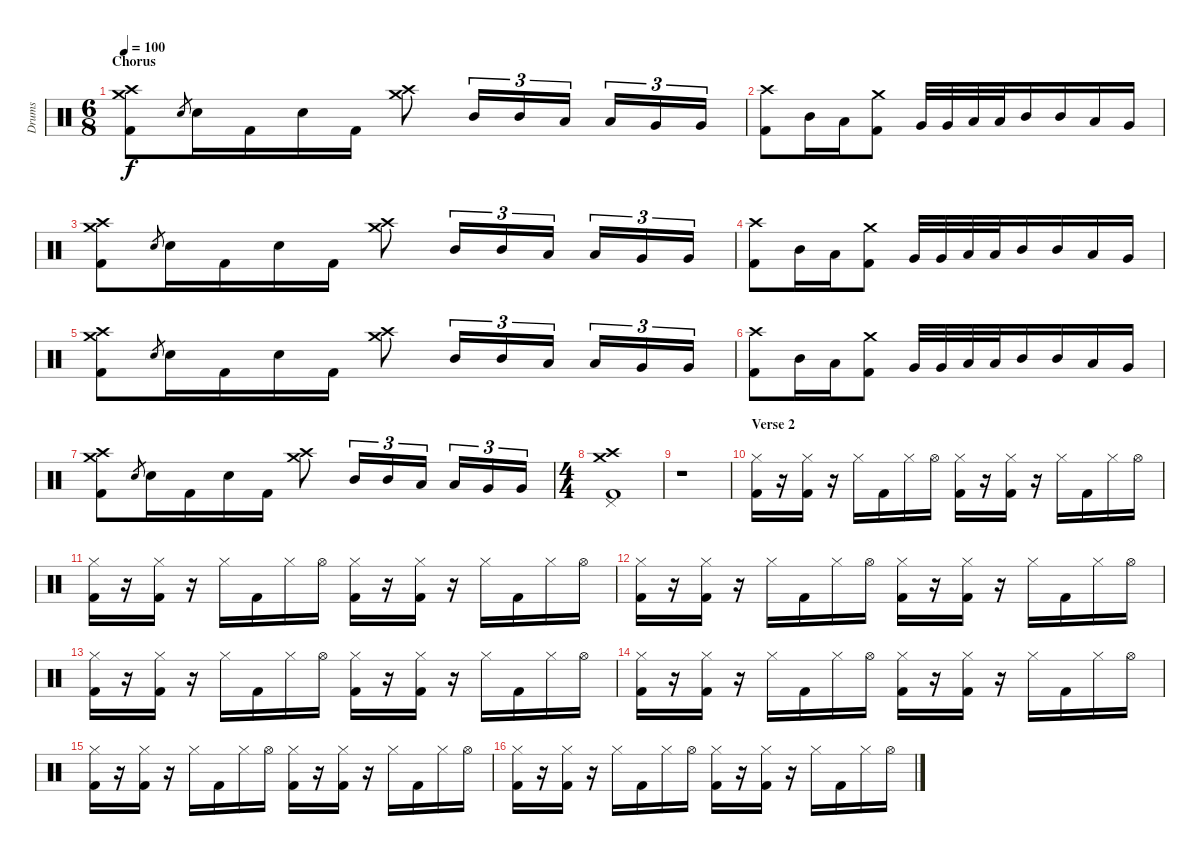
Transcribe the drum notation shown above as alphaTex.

\track ("Drums" "Drums") {instrument percussion}
\staff {score}
\articulation defaults
\ts (6 8)
\section ("" "Chorus")
\tempo 100
\clef neutral
\ks c
("Crash high (hit)" "Crash medium (hit)" "Kick (hit) 2").8{dy f} "Electric Snare (hit)".8{gr} "Electric Snare (hit)".16 "Kick (hit) 2".16 "Electric Snare (hit)".16 "Kick (hit) 2".16 ("Crash high (hit)" "Crash medium (hit)").8 "Mid Tom (hit)".16{tu (3 2)} "Mid Tom (hit)".16{tu (3 2)} "Low Tom (hit)".16{tu (3 2)} "Low Tom (hit)".16{tu (3 2)} "Very Low Tom (hit)".16{tu (3 2)} "Very Low Tom (hit)".16{tu (3 2)} |
("Crash high (hit)" "Kick (hit) 2").8 "Mid Tom (hit)".16 "Low Tom (hit)".16 ("Crash medium (hit)" "Kick (hit) 2").8 "Very Low Tom (hit)".32 "Very Low Tom (hit)".32 "Low Tom (hit)".32 "Low Tom (hit)".32 "Mid Tom (hit)".16 "Mid Tom (hit)".16 "Low Tom (hit)".16 "Very Low Tom (hit)".16 |
("Crash high (hit)" "Crash medium (hit)" "Kick (hit) 2").8 "Electric Snare (hit)".8{gr} "Electric Snare (hit)".16 "Kick (hit) 2".16 "Electric Snare (hit)".16 "Kick (hit) 2".16 ("Crash high (hit)" "Crash medium (hit)").8 "Mid Tom (hit)".16{tu (3 2)} "Mid Tom (hit)".16{tu (3 2)} "Low Tom (hit)".16{tu (3 2)} "Low Tom (hit)".16{tu (3 2)} "Very Low Tom (hit)".16{tu (3 2)} "Very Low Tom (hit)".16{tu (3 2)} |
("Crash high (hit)" "Kick (hit) 2").8 "Mid Tom (hit)".16 "Low Tom (hit)".16 ("Crash medium (hit)" "Kick (hit) 2").8 "Very Low Tom (hit)".32 "Very Low Tom (hit)".32 "Low Tom (hit)".32 "Low Tom (hit)".32 "Mid Tom (hit)".16 "Mid Tom (hit)".16 "Low Tom (hit)".16 "Very Low Tom (hit)".16 |
("Crash high (hit)" "Crash medium (hit)" "Kick (hit) 2").8 "Electric Snare (hit)".8{gr} "Electric Snare (hit)".16 "Kick (hit) 2".16 "Electric Snare (hit)".16 "Kick (hit) 2".16 ("Crash high (hit)" "Crash medium (hit)").8 "Mid Tom (hit)".16{tu (3 2)} "Mid Tom (hit)".16{tu (3 2)} "Low Tom (hit)".16{tu (3 2)} "Low Tom (hit)".16{tu (3 2)} "Very Low Tom (hit)".16{tu (3 2)} "Very Low Tom (hit)".16{tu (3 2)} |
("Crash high (hit)" "Kick (hit) 2").8 "Mid Tom (hit)".16 "Low Tom (hit)".16 ("Crash medium (hit)" "Kick (hit) 2").8 "Very Low Tom (hit)".32 "Very Low Tom (hit)".32 "Low Tom (hit)".32 "Low Tom (hit)".32 "Mid Tom (hit)".16 "Mid Tom (hit)".16 "Low Tom (hit)".16 "Very Low Tom (hit)".16 |
("Crash high (hit)" "Crash medium (hit)" "Kick (hit) 2").8 "Electric Snare (hit)".8{gr} "Electric Snare (hit)".16 "Kick (hit) 2".16 "Electric Snare (hit)".16 "Kick (hit) 2".16 ("Crash high (hit)" "Crash medium (hit)").8 "Mid Tom (hit)".16{tu (3 2)} "Mid Tom (hit)".16{tu (3 2)} "Low Tom (hit)".16{tu (3 2)} "Low Tom (hit)".16{tu (3 2)} "Very Low Tom (hit)".16{tu (3 2)} "Very Low Tom (hit)".16{tu (3 2)} |
\ts (4 4)
("Crash high (hit)" "Crash medium (hit)" "Pedal Hi-Hat (hit)" "Kick (hit) 2").1 |
r.1 |
\section ("" "Verse 2")
("Hi-Hat (closed)" "Kick (hit) 2").16 r.16 ("Hi-Hat (closed)" "Kick (hit) 2").16 r.16 "Hi-Hat (closed)".16 "Kick (hit) 2".16 "Hi-Hat (closed)".16 "Hi-Hat (open)".16 ("Hi-Hat (closed)" "Kick (hit) 2").16 r.16 ("Hi-Hat (closed)" "Kick (hit) 2").16 r.16 "Hi-Hat (closed)".16 "Kick (hit) 2".16 "Hi-Hat (closed)".16 "Hi-Hat (open)".16 |
("Hi-Hat (closed)" "Kick (hit) 2").16 r.16 ("Hi-Hat (closed)" "Kick (hit) 2").16 r.16 "Hi-Hat (closed)".16 "Kick (hit) 2".16 "Hi-Hat (closed)".16 "Hi-Hat (open)".16 ("Hi-Hat (closed)" "Kick (hit) 2").16 r.16 ("Hi-Hat (closed)" "Kick (hit) 2").16 r.16 "Hi-Hat (closed)".16 "Kick (hit) 2".16 "Hi-Hat (closed)".16 "Hi-Hat (open)".16 |
("Hi-Hat (closed)" "Kick (hit) 2").16 r.16 ("Hi-Hat (closed)" "Kick (hit) 2").16 r.16 "Hi-Hat (closed)".16 "Kick (hit) 2".16 "Hi-Hat (closed)".16 "Hi-Hat (open)".16 ("Hi-Hat (closed)" "Kick (hit) 2").16 r.16 ("Hi-Hat (closed)" "Kick (hit) 2").16 r.16 "Hi-Hat (closed)".16 "Kick (hit) 2".16 "Hi-Hat (closed)".16 "Hi-Hat (open)".16 |
("Hi-Hat (closed)" "Kick (hit) 2").16 r.16 ("Hi-Hat (closed)" "Kick (hit) 2").16 r.16 "Hi-Hat (closed)".16 "Kick (hit) 2".16 "Hi-Hat (closed)".16 "Hi-Hat (open)".16 ("Hi-Hat (closed)" "Kick (hit) 2").16 r.16 ("Hi-Hat (closed)" "Kick (hit) 2").16 r.16 "Hi-Hat (closed)".16 "Kick (hit) 2".16 "Hi-Hat (closed)".16 "Hi-Hat (open)".16 |
("Hi-Hat (closed)" "Kick (hit) 2").16 r.16 ("Hi-Hat (closed)" "Kick (hit) 2").16 r.16 "Hi-Hat (closed)".16 "Kick (hit) 2".16 "Hi-Hat (closed)".16 "Hi-Hat (open)".16 ("Hi-Hat (closed)" "Kick (hit) 2").16 r.16 ("Hi-Hat (closed)" "Kick (hit) 2").16 r.16 "Hi-Hat (closed)".16 "Kick (hit) 2".16 "Hi-Hat (closed)".16 "Hi-Hat (open)".16 |
("Hi-Hat (closed)" "Kick (hit) 2").16 r.16 ("Hi-Hat (closed)" "Kick (hit) 2").16 r.16 "Hi-Hat (closed)".16 "Kick (hit) 2".16 "Hi-Hat (closed)".16 "Hi-Hat (open)".16 ("Hi-Hat (closed)" "Kick (hit) 2").16 r.16 ("Hi-Hat (closed)" "Kick (hit) 2").16 r.16 "Hi-Hat (closed)".16 "Kick (hit) 2".16 "Hi-Hat (closed)".16 "Hi-Hat (open)".16 |
("Hi-Hat (closed)" "Kick (hit) 2").16 r.16 ("Hi-Hat (closed)" "Kick (hit) 2").16 r.16 "Hi-Hat (closed)".16 "Kick (hit) 2".16 "Hi-Hat (closed)".16 "Hi-Hat (open)".16 ("Hi-Hat (closed)" "Kick (hit) 2").16 r.16 ("Hi-Hat (closed)" "Kick (hit) 2").16 r.16 "Hi-Hat (closed)".16 "Kick (hit) 2".16 "Hi-Hat (closed)".16 "Hi-Hat (open)".16
